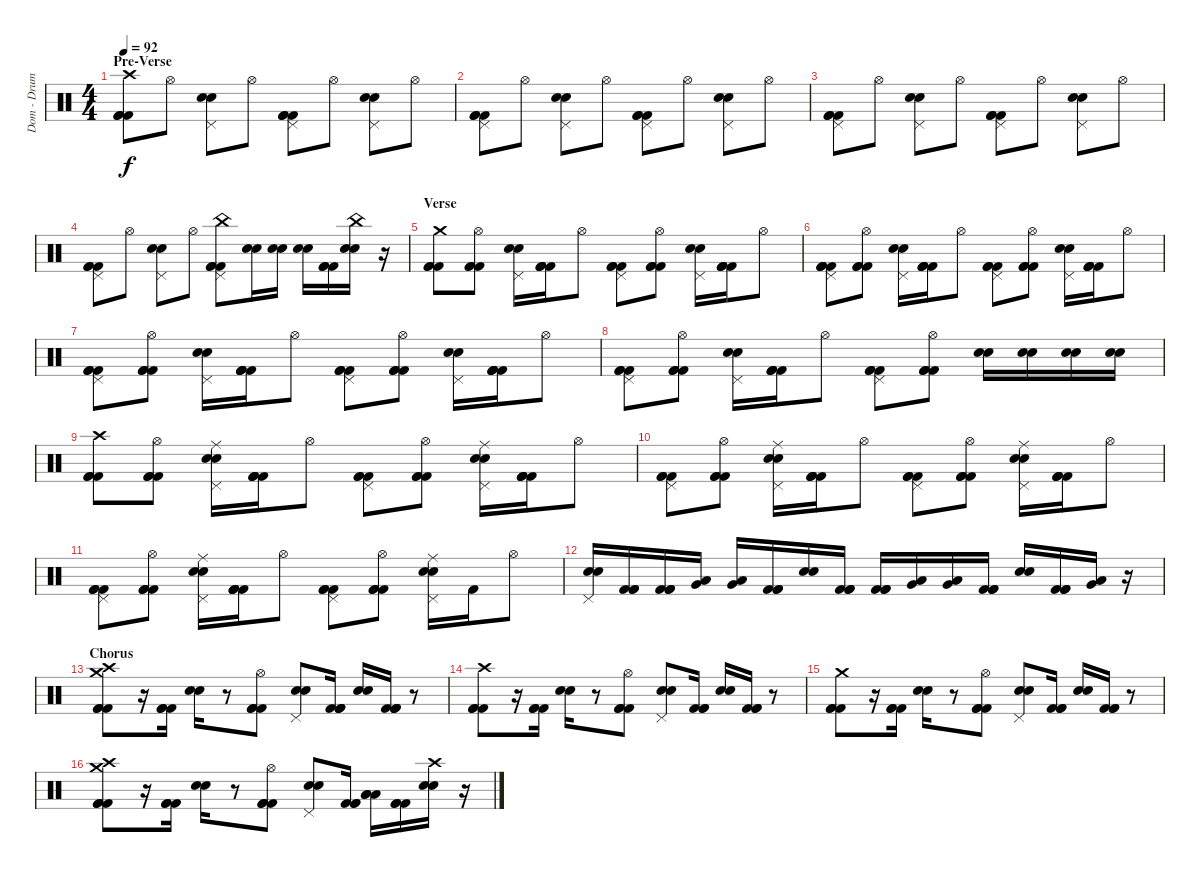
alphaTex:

\track ("Dom - Drums " "Dom - Drum") {instrument percussion}
\staff {score}
\articulation defaults
\ts (4 4)
\section ("" "Pre-Verse")
\tempo 92
\clef neutral
\ks c
("Crash high (hit)" "Kick (hit) 2" "Kick (hit) 2" "Kick (hit) 2").8{dy f} "Hi-Hat (open)".8 ("Electric Snare (hit)" "Pedal Hi-Hat (hit)" "Snare (hit) 2").8 "Hi-Hat (open)".8 ("Kick (hit) 2" "Pedal Hi-Hat (hit)" "Kick (hit) 2" "Kick (hit) 2").8 "Hi-Hat (open)".8 ("Snare (hit) 2" "Pedal Hi-Hat (hit)" "Electric Snare (hit)").8 "Hi-Hat (open)".8 |
("Pedal Hi-Hat (hit)" "Kick (hit) 2" "Kick (hit) 2" "Kick (hit) 2").8 "Hi-Hat (open)".8 ("Pedal Hi-Hat (hit)" "Snare (hit) 2" "Electric Snare (hit)").8 "Hi-Hat (open)".8 ("Pedal Hi-Hat (hit)" "Kick (hit) 2" "Kick (hit) 2" "Kick (hit) 2").8 "Hi-Hat (open)".8 ("Pedal Hi-Hat (hit)" "Snare (hit) 2" "Electric Snare (hit)").8 "Hi-Hat (open)".8 |
("Pedal Hi-Hat (hit)" "Kick (hit) 2" "Kick (hit) 2" "Kick (hit) 2").8 "Hi-Hat (open)".8 ("Pedal Hi-Hat (hit)" "Snare (hit) 2" "Electric Snare (hit)").8 "Hi-Hat (open)".8 ("Pedal Hi-Hat (hit)" "Kick (hit) 2" "Kick (hit) 2" "Kick (hit) 2").8 "Hi-Hat (open)".8 ("Pedal Hi-Hat (hit)" "Snare (hit) 2" "Electric Snare (hit)").8 "Hi-Hat (open)".8 |
("Pedal Hi-Hat (hit)" "Kick (hit) 2" "Kick (hit) 2" "Kick (hit) 2").8 "Hi-Hat (open)".8 ("Pedal Hi-Hat (hit)" "Snare (hit) 2" "Electric Snare (hit)").8 "Hi-Hat (open)".8 ("Pedal Hi-Hat (hit)" "Kick (hit) 2" "Kick (hit) 2" "Kick (hit) 2" "China (hit)").8 ("Snare (hit) 2" "Electric Snare (hit)").16 ("Snare (hit) 2" "Electric Snare (hit)").16 ("Snare (hit) 2" "Electric Snare (hit)").16 ("Kick (hit) 2" "Kick (hit) 2" "Kick (hit) 2").16 ("Snare (hit) 2" "Electric Snare (hit)" "China (hit)").16 r.16 |
\section ("" "Verse")
("Crash medium (hit)" "Kick (hit) 2" "Kick (hit) 2" "Kick (hit) 2").8 ("Hi-Hat (open)" "Kick (hit) 2" "Kick (hit) 2" "Kick (hit) 2").8 ("Snare (hit) 2" "Electric Snare (hit)" "Pedal Hi-Hat (hit)").16 ("Kick (hit) 2" "Kick (hit) 2" "Kick (hit) 2" "Kick (hit) 2").16 "Hi-Hat (open)".8 ("Pedal Hi-Hat (hit)" "Kick (hit) 2" "Kick (hit) 2" "Kick (hit) 2").8 ("Hi-Hat (open)" "Kick (hit) 2" "Kick (hit) 2" "Kick (hit) 2").8 ("Snare (hit) 2" "Electric Snare (hit)" "Pedal Hi-Hat (hit)").16 ("Kick (hit) 2" "Kick (hit) 2" "Kick (hit) 2" "Kick (hit) 2").16 "Hi-Hat (open)".8 |
("Kick (hit) 2" "Kick (hit) 2" "Kick (hit) 2" "Kick (hit) 2" "Pedal Hi-Hat (hit)").8 ("Hi-Hat (open)" "Kick (hit) 2" "Kick (hit) 2" "Kick (hit) 2").8 ("Pedal Hi-Hat (hit)" "Snare (hit) 2" "Electric Snare (hit)").16 ("Kick (hit) 2" "Kick (hit) 2" "Kick (hit) 2" "Kick (hit) 2").16 "Hi-Hat (open)".8 ("Pedal Hi-Hat (hit)" "Kick (hit) 2" "Kick (hit) 2" "Kick (hit) 2").8 ("Hi-Hat (open)" "Kick (hit) 2" "Kick (hit) 2" "Kick (hit) 2").8 ("Pedal Hi-Hat (hit)" "Snare (hit) 2" "Electric Snare (hit)").16 ("Kick (hit) 2" "Kick (hit) 2" "Kick (hit) 2" "Kick (hit) 2").16 "Hi-Hat (open)".8 |
("Pedal Hi-Hat (hit)" "Kick (hit) 2" "Kick (hit) 2" "Kick (hit) 2").8 ("Hi-Hat (open)" "Kick (hit) 2" "Kick (hit) 2" "Kick (hit) 2").8 ("Pedal Hi-Hat (hit)" "Snare (hit) 2" "Electric Snare (hit)").16 ("Kick (hit) 2" "Kick (hit) 2" "Kick (hit) 2" "Kick (hit) 2").16 "Hi-Hat (open)".8 ("Pedal Hi-Hat (hit)" "Kick (hit) 2" "Kick (hit) 2" "Kick (hit) 2").8 ("Hi-Hat (open)" "Kick (hit) 2" "Kick (hit) 2" "Kick (hit) 2").8 ("Pedal Hi-Hat (hit)" "Snare (hit) 2" "Electric Snare (hit)").16 ("Kick (hit) 2" "Kick (hit) 2" "Kick (hit) 2" "Kick (hit) 2").16 "Hi-Hat (open)".8 |
("Pedal Hi-Hat (hit)" "Kick (hit) 2" "Kick (hit) 2" "Kick (hit) 2").8 ("Hi-Hat (open)" "Kick (hit) 2" "Kick (hit) 2" "Kick (hit) 2").8 ("Pedal Hi-Hat (hit)" "Snare (hit) 2" "Electric Snare (hit)").16 ("Kick (hit) 2" "Kick (hit) 2" "Kick (hit) 2" "Kick (hit) 2").16 "Hi-Hat (open)".8 ("Pedal Hi-Hat (hit)" "Kick (hit) 2" "Kick (hit) 2" "Kick (hit) 2").8 ("Hi-Hat (open)" "Kick (hit) 2" "Kick (hit) 2" "Kick (hit) 2").8 ("Snare (hit) 2" "Electric Snare (hit)").16 ("Snare (hit) 2" "Electric Snare (hit)").16 ("Snare (hit) 2" "Electric Snare (hit)").16 ("Snare (hit) 2" "Electric Snare (hit)").16 |
("Crash high (hit)" "Kick (hit) 2" "Kick (hit) 2" "Kick (hit) 2").8 ("Hi-Hat (open)" "Kick (hit) 2" "Kick (hit) 2" "Kick (hit) 2").8 ("Ride (middle)" "Pedal Hi-Hat (hit)" "Snare (hit) 2" "Electric Snare (hit)").16 ("Kick (hit) 2" "Kick (hit) 2" "Kick (hit) 2" "Kick (hit) 2").16 "Hi-Hat (open)".8 ("Pedal Hi-Hat (hit)" "Kick (hit) 2" "Kick (hit) 2" "Kick (hit) 2").8 ("Hi-Hat (open)" "Kick (hit) 2" "Kick (hit) 2" "Kick (hit) 2").8 ("Ride (middle)" "Pedal Hi-Hat (hit)" "Snare (hit) 2" "Electric Snare (hit)").16 ("Kick (hit) 2" "Kick (hit) 2" "Kick (hit) 2" "Kick (hit) 2").16 "Hi-Hat (open)".8 |
("Pedal Hi-Hat (hit)" "Kick (hit) 2" "Kick (hit) 2" "Kick (hit) 2").8 ("Hi-Hat (open)" "Kick (hit) 2" "Kick (hit) 2" "Kick (hit) 2").8 ("Ride (middle)" "Pedal Hi-Hat (hit)" "Snare (hit) 2" "Electric Snare (hit)").16 ("Kick (hit) 2" "Kick (hit) 2" "Kick (hit) 2" "Kick (hit) 2").16 "Hi-Hat (open)".8 ("Pedal Hi-Hat (hit)" "Kick (hit) 2" "Kick (hit) 2" "Kick (hit) 2").8 ("Hi-Hat (open)" "Kick (hit) 2" "Kick (hit) 2" "Kick (hit) 2").8 ("Ride (middle)" "Pedal Hi-Hat (hit)" "Snare (hit) 2" "Electric Snare (hit)").16 ("Kick (hit) 2" "Kick (hit) 2" "Kick (hit) 2" "Kick (hit) 2").16 "Hi-Hat (open)".8 |
("Pedal Hi-Hat (hit)" "Kick (hit) 2" "Kick (hit) 2" "Kick (hit) 2").8 ("Hi-Hat (open)" "Kick (hit) 2" "Kick (hit) 2" "Kick (hit) 2").8 ("Ride (middle)" "Pedal Hi-Hat (hit)" "Snare (hit) 2" "Electric Snare (hit)").16 ("Kick (hit) 2" "Kick (hit) 2" "Kick (hit) 2" "Kick (hit) 2").16 "Hi-Hat (open)".8 ("Pedal Hi-Hat (hit)" "Kick (hit) 2" "Kick (hit) 2" "Kick (hit) 2").8 ("Hi-Hat (open)" "Kick (hit) 2" "Kick (hit) 2" "Kick (hit) 2").8 ("Ride (middle)" "Pedal Hi-Hat (hit)" "Snare (hit) 2" "Electric Snare (hit)").16 "Kick (hit) 2".16 "Hi-Hat (open)".8 |
("Pedal Hi-Hat (hit)" "Snare (hit) 2" "Electric Snare (hit)").16 ("Kick (hit) 2" "Kick (hit) 2" "Kick (hit) 2").16 ("Kick (hit) 2" "Kick (hit) 2" "Kick (hit) 2").16 ("Low Tom (hit)" "Very Low Tom (hit)").16 ("Low Tom (hit)" "Very Low Tom (hit)").16 ("Kick (hit) 2" "Kick (hit) 2" "Kick (hit) 2").16 ("Snare (hit) 2" "Electric Snare (hit)").16 ("Kick (hit) 2" "Kick (hit) 2" "Kick (hit) 2").16 ("Kick (hit) 2" "Kick (hit) 2" "Kick (hit) 2").16 ("Low Tom (hit)" "Very Low Tom (hit)").16 ("Low Tom (hit)" "Very Low Tom (hit)").16 ("Kick (hit) 2" "Kick (hit) 2" "Kick (hit) 2").16 ("Snare (hit) 2" "Electric Snare (hit)").16 ("Kick (hit) 2" "Kick (hit) 2" "Kick (hit) 2").16 ("Low Tom (hit)" "Very Low Tom (hit)").16 r.16 |
\section ("" "Chorus")
("Kick (hit) 2" "Kick (hit) 2" "Kick (hit) 2" "Crash high (hit)" "Crash medium (hit)").8 r.16 ("Kick (hit) 2" "Kick (hit) 2" "Kick (hit) 2").16 ("Snare (hit) 2" "Electric Snare (hit)").16 r.8 ("Hi-Hat (open)" "Kick (hit) 2" "Kick (hit) 2" "Kick (hit) 2").8 ("Pedal Hi-Hat (hit)" "Snare (hit) 2" "Electric Snare (hit)").8 ("Kick (hit) 2" "Kick (hit) 2" "Kick (hit) 2" "Kick (hit) 2").16 ("Snare (hit) 2" "Electric Snare (hit)").16 ("Kick (hit) 2" "Kick (hit) 2" "Kick (hit) 2" "Kick (hit) 2").16 r.8 |
("Kick (hit) 2" "Kick (hit) 2" "Kick (hit) 2" "Crash high (hit)").8 r.16 ("Kick (hit) 2" "Kick (hit) 2" "Kick (hit) 2").16 ("Snare (hit) 2" "Electric Snare (hit)").16 r.8 ("Hi-Hat (open)" "Kick (hit) 2" "Kick (hit) 2" "Kick (hit) 2").8 ("Pedal Hi-Hat (hit)" "Snare (hit) 2" "Electric Snare (hit)").8 ("Kick (hit) 2" "Kick (hit) 2" "Kick (hit) 2").16 ("Snare (hit) 2" "Electric Snare (hit)").16 ("Kick (hit) 2" "Kick (hit) 2" "Kick (hit) 2").16 r.8 |
("Kick (hit) 2" "Kick (hit) 2" "Kick (hit) 2" "Crash medium (hit)").8 r.16 ("Kick (hit) 2" "Kick (hit) 2" "Kick (hit) 2").16 ("Snare (hit) 2" "Electric Snare (hit)").16 r.8 ("Hi-Hat (open)" "Kick (hit) 2" "Kick (hit) 2" "Kick (hit) 2").8 ("Pedal Hi-Hat (hit)" "Snare (hit) 2" "Electric Snare (hit)").8 ("Kick (hit) 2" "Kick (hit) 2" "Kick (hit) 2").16 ("Snare (hit) 2" "Electric Snare (hit)").16 ("Kick (hit) 2" "Kick (hit) 2" "Kick (hit) 2").16 r.8 |
("Kick (hit) 2" "Kick (hit) 2" "Kick (hit) 2" "Crash high (hit)" "Crash medium (hit)").8 r.16 ("Kick (hit) 2" "Kick (hit) 2" "Kick (hit) 2").16 ("Snare (hit) 2" "Electric Snare (hit)").16 r.8 ("Hi-Hat (open)" "Kick (hit) 2" "Kick (hit) 2" "Kick (hit) 2").8 ("Pedal Hi-Hat (hit)" "Snare (hit) 2" "Electric Snare (hit)").8 ("Kick (hit) 2" "Kick (hit) 2" "Kick (hit) 2").16 ("Low Floor Tom (hit)" "Low Floor Tom (hit)" "Low Floor Tom (hit)").16 ("Kick (hit) 2" "Kick (hit) 2" "Kick (hit) 2").16 ("Snare (hit) 2" "Electric Snare (hit)" "Crash high (hit)").16 r.16
